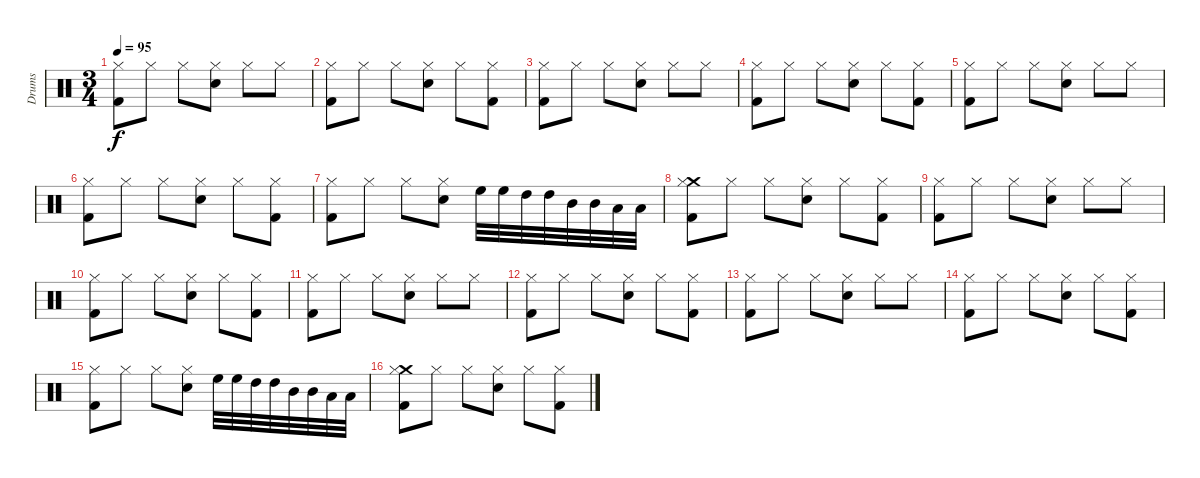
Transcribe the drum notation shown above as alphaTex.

\track ("Drums" "Drums") {instrument percussion}
\staff {score}
\articulation defaults
\ts (3 4)
\tempo 95
\clef neutral
\ks c
("Hi-Hat (closed)" "Kick (hit) 2").8{dy f} "Hi-Hat (closed)".8 "Hi-Hat (closed)".8 ("Hi-Hat (closed)" "Electric Snare (hit)").8 "Hi-Hat (closed)".8 "Hi-Hat (closed)".8 |
("Hi-Hat (closed)" "Kick (hit) 2").8 "Hi-Hat (closed)".8 "Hi-Hat (closed)".8 ("Hi-Hat (closed)" "Electric Snare (hit)").8 "Hi-Hat (closed)".8 ("Hi-Hat (closed)" "Kick (hit) 2").8 |
("Hi-Hat (closed)" "Kick (hit) 2").8 "Hi-Hat (closed)".8 "Hi-Hat (closed)".8 ("Hi-Hat (closed)" "Electric Snare (hit)").8 "Hi-Hat (closed)".8 "Hi-Hat (closed)".8 |
("Hi-Hat (closed)" "Kick (hit) 2").8 "Hi-Hat (closed)".8 "Hi-Hat (closed)".8 ("Hi-Hat (closed)" "Electric Snare (hit)").8 "Hi-Hat (closed)".8 ("Hi-Hat (closed)" "Kick (hit) 2").8 |
("Hi-Hat (closed)" "Kick (hit) 2").8 "Hi-Hat (closed)".8 "Hi-Hat (closed)".8 ("Hi-Hat (closed)" "Electric Snare (hit)").8 "Hi-Hat (closed)".8 "Hi-Hat (closed)".8 |
("Hi-Hat (closed)" "Kick (hit) 2").8 "Hi-Hat (closed)".8 "Hi-Hat (closed)".8 ("Hi-Hat (closed)" "Electric Snare (hit)").8 "Hi-Hat (closed)".8 ("Hi-Hat (closed)" "Kick (hit) 2").8 |
("Hi-Hat (closed)" "Kick (hit) 2").8 "Hi-Hat (closed)".8 "Hi-Hat (closed)".8 ("Hi-Hat (closed)" "Electric Snare (hit)").8 "High Floor Tom (hit)".32 "High Floor Tom (hit)".32 "High Tom (hit)".32 "High Tom (hit)".32 "Mid Tom (hit)".32 "Mid Tom (hit)".32 "Low Tom (hit)".32 "Low Tom (hit)".32 |
("Crash medium (hit)" "Hi-Hat (closed)" "Kick (hit) 2").8 "Hi-Hat (closed)".8 "Hi-Hat (closed)".8 ("Hi-Hat (closed)" "Electric Snare (hit)").8 "Hi-Hat (closed)".8 ("Hi-Hat (closed)" "Kick (hit) 2").8 |
("Hi-Hat (closed)" "Kick (hit) 2").8 "Hi-Hat (closed)".8 "Hi-Hat (closed)".8 ("Hi-Hat (closed)" "Electric Snare (hit)").8 "Hi-Hat (closed)".8 "Hi-Hat (closed)".8 |
("Hi-Hat (closed)" "Kick (hit) 2").8 "Hi-Hat (closed)".8 "Hi-Hat (closed)".8 ("Hi-Hat (closed)" "Electric Snare (hit)").8 "Hi-Hat (closed)".8 ("Hi-Hat (closed)" "Kick (hit) 2").8 |
("Hi-Hat (closed)" "Kick (hit) 2").8 "Hi-Hat (closed)".8 "Hi-Hat (closed)".8 ("Hi-Hat (closed)" "Electric Snare (hit)").8 "Hi-Hat (closed)".8 "Hi-Hat (closed)".8 |
("Hi-Hat (closed)" "Kick (hit) 2").8 "Hi-Hat (closed)".8 "Hi-Hat (closed)".8 ("Hi-Hat (closed)" "Electric Snare (hit)").8 "Hi-Hat (closed)".8 ("Hi-Hat (closed)" "Kick (hit) 2").8 |
("Hi-Hat (closed)" "Kick (hit) 2").8 "Hi-Hat (closed)".8 "Hi-Hat (closed)".8 ("Hi-Hat (closed)" "Electric Snare (hit)").8 "Hi-Hat (closed)".8 "Hi-Hat (closed)".8 |
("Hi-Hat (closed)" "Kick (hit) 2").8 "Hi-Hat (closed)".8 "Hi-Hat (closed)".8 ("Hi-Hat (closed)" "Electric Snare (hit)").8 "Hi-Hat (closed)".8 ("Hi-Hat (closed)" "Kick (hit) 2").8 |
("Hi-Hat (closed)" "Kick (hit) 2").8 "Hi-Hat (closed)".8 "Hi-Hat (closed)".8 ("Hi-Hat (closed)" "Electric Snare (hit)").8 "High Floor Tom (hit)".32 "High Floor Tom (hit)".32 "High Tom (hit)".32 "High Tom (hit)".32 "Mid Tom (hit)".32 "Mid Tom (hit)".32 "Low Tom (hit)".32 "Low Tom (hit)".32 |
("Crash medium (hit)" "Hi-Hat (closed)" "Kick (hit) 2").8 "Hi-Hat (closed)".8 "Hi-Hat (closed)".8 ("Hi-Hat (closed)" "Electric Snare (hit)").8 "Hi-Hat (closed)".8 ("Hi-Hat (closed)" "Kick (hit) 2").8
